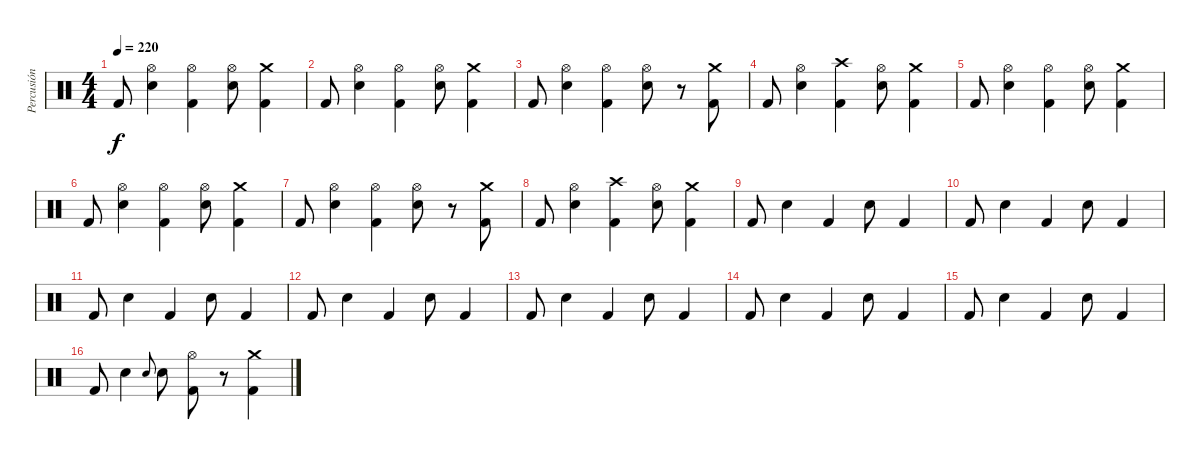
\track ("Percusión" "Percusión") {instrument percussion}
\staff {score}
\articulation defaults
\ts (4 4)
\tempo 220
\clef neutral
\ks c "Kick (hit) 2".8{dy f}
("Hi-Hat (open)" "Snare (hit) 2").4 ("Hi-Hat (open)" "Kick (hit) 2").4 ("Hi-Hat (open)" "Snare (hit) 2").8 ("Crash medium (hit)" "Kick (hit) 2").4 |
"Kick (hit) 2".8 ("Hi-Hat (open)" "Snare (hit) 2").4 ("Hi-Hat (open)" "Kick (hit) 2").4 ("Hi-Hat (open)" "Snare (hit) 2").8 ("Crash medium (hit)" "Kick (hit) 2").4 |
"Kick (hit) 2".8 ("Hi-Hat (open)" "Snare (hit) 2").4 ("Hi-Hat (open)" "Kick (hit) 2").4 ("Hi-Hat (open)" "Snare (hit) 2").8 r.8 ("Crash medium (hit)" "Kick (hit) 2").8 |
"Kick (hit) 2".8 ("Hi-Hat (open)" "Snare (hit) 2").4 ("Crash high (hit)" "Kick (hit) 2").4 ("Hi-Hat (open)" "Snare (hit) 2").8 ("Crash medium (hit)" "Kick (hit) 2").4 |
"Kick (hit) 2".8 ("Hi-Hat (open)" "Snare (hit) 2").4 ("Hi-Hat (open)" "Kick (hit) 2").4 ("Hi-Hat (open)" "Snare (hit) 2").8 ("Crash medium (hit)" "Kick (hit) 2").4 |
"Kick (hit) 2".8 ("Hi-Hat (open)" "Snare (hit) 2").4 ("Hi-Hat (open)" "Kick (hit) 2").4 ("Hi-Hat (open)" "Snare (hit) 2").8 ("Crash medium (hit)" "Kick (hit) 2").4 |
"Kick (hit) 2".8 ("Hi-Hat (open)" "Snare (hit) 2").4 ("Hi-Hat (open)" "Kick (hit) 2").4 ("Hi-Hat (open)" "Snare (hit) 2").8 r.8 ("Crash medium (hit)" "Kick (hit) 2").8 |
"Kick (hit) 2".8 ("Hi-Hat (open)" "Snare (hit) 2").4 ("Crash high (hit)" "Kick (hit) 2").4 ("Hi-Hat (open)" "Snare (hit) 2").8 ("Crash medium (hit)" "Kick (hit) 2").4 |
"Kick (hit) 2".8 "Snare (hit) 2".4 "Kick (hit) 2".4 "Snare (hit) 2".8 "Kick (hit) 2".4 |
"Kick (hit) 2".8 "Snare (hit) 2".4 "Kick (hit) 2".4 "Snare (hit) 2".8 "Kick (hit) 2".4 |
"Kick (hit) 2".8 "Snare (hit) 2".4 "Kick (hit) 2".4 "Snare (hit) 2".8 "Kick (hit) 2".4 |
"Kick (hit) 2".8 "Snare (hit) 2".4 "Kick (hit) 2".4 "Snare (hit) 2".8 "Kick (hit) 2".4 |
"Kick (hit) 2".8 "Snare (hit) 2".4 "Kick (hit) 2".4 "Snare (hit) 2".8 "Kick (hit) 2".4 |
"Kick (hit) 2".8 "Snare (hit) 2".4 "Kick (hit) 2".4 "Snare (hit) 2".8 "Kick (hit) 2".4 |
"Kick (hit) 2".8 "Snare (hit) 2".4 "Kick (hit) 2".4 "Snare (hit) 2".8 "Kick (hit) 2".4 |
"Kick (hit) 2".8 "Snare (hit) 2".4 "Snare (hit) 2".8{gr onbeat} "Snare (hit) 2".8 ("Hi-Hat (open)" "Kick (hit) 2").8 r.8 ("Crash medium (hit)" "Kick (hit) 2").4
